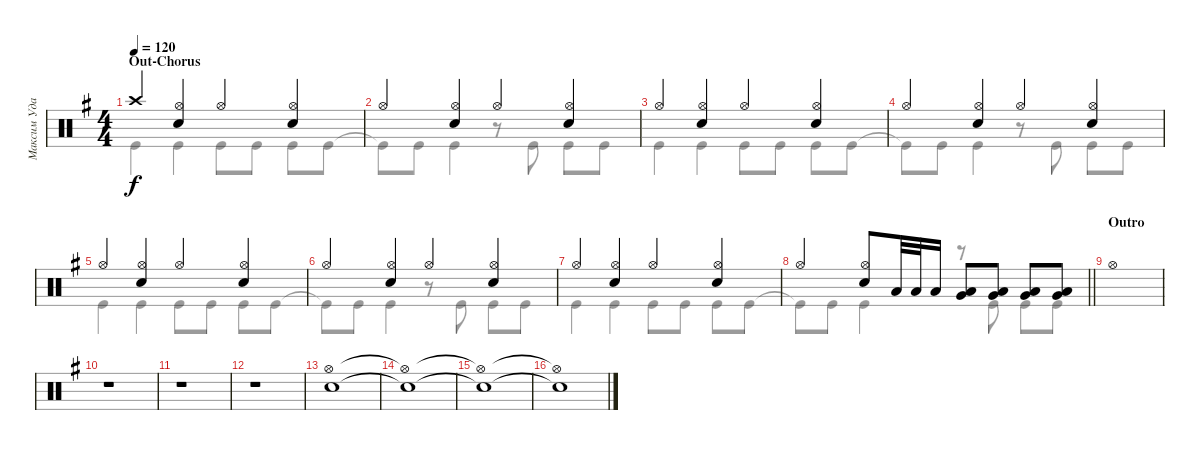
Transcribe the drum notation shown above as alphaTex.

\track ("Максим Удалов" "Максим Уда") {instrument percussion}
\staff {score}
\articulation defaults
\voice
\ts (4 4)
\section ("" "Out-Chorus")
\tempo 120
\clef neutral
\ks g "Crash high (hit)".4{dy f}
("Snare (hit) 2" "Hi-Hat (open)").4 "Hi-Hat (open)".4 ("Snare (hit) 2" "Hi-Hat (open)").4 |
"Hi-Hat (open)".4 ("Hi-Hat (open)" "Snare (hit) 2").4 "Hi-Hat (open)".4 ("Hi-Hat (open)" "Snare (hit) 2").4 |
"Hi-Hat (open)".4 ("Snare (hit) 2" "Hi-Hat (open)").4 "Hi-Hat (open)".4 ("Snare (hit) 2" "Hi-Hat (open)").4 |
"Hi-Hat (open)".4 ("Hi-Hat (open)" "Snare (hit) 2").4 "Hi-Hat (open)".4 ("Hi-Hat (open)" "Snare (hit) 2").4 |
"Hi-Hat (open)".4 ("Snare (hit) 2" "Hi-Hat (open)").4 "Hi-Hat (open)".4 ("Snare (hit) 2" "Hi-Hat (open)").4 |
"Hi-Hat (open)".4 ("Hi-Hat (open)" "Snare (hit) 2").4 "Hi-Hat (open)".4 ("Hi-Hat (open)" "Snare (hit) 2").4 |
"Hi-Hat (open)".4 ("Snare (hit) 2" "Hi-Hat (open)").4 "Hi-Hat (open)".4 ("Snare (hit) 2" "Hi-Hat (open)").4 |
\barLineRight lightlight "Hi-Hat (open)".4
("Hi-Hat (open)" "Snare (hit) 2").8 "Low Tom (hit)".32 "Low Tom (hit)".32 "Low Tom (hit)".16 ("Very Low Tom (hit)" "Low Tom (hit)").8 ("Very Low Tom (hit)" "Low Tom (hit)").8 ("Very Low Tom (hit)" "Low Tom (hit)").8 ("Very Low Tom (hit)" "Low Tom (hit)").8 |
\section ("" "Outro")
"Hi-Hat (open)".1 |
r.1 |
r.1 |
r.1 |
("Snare (hit) 2" "Hi-Hat (open)").1 |
("Snare (hit) 2"{t} "Hi-Hat (open)"{t}).1 |
("Snare (hit) 2"{t} "Hi-Hat (open)"{t}).1 |
("Snare (hit) 2"{t} "Hi-Hat (open)"{t}).1
\voice
\clef neutral
\ottava regular
\simile none
\ks g "Kick (hit)".4{dy f} "Kick (hit)".4 "Kick (hit)".8 "Kick (hit)".8 "Kick (hit)".8 "Kick (hit)".8
|
"Kick (hit)"{t}.8 "Kick (hit)".8 "Kick (hit)".4 r.8 "Kick (hit)".8 "Kick (hit)".8 "Kick (hit)".8 |
"Kick (hit)".4 "Kick (hit)".4 "Kick (hit)".8 "Kick (hit)".8 "Kick (hit)".8 "Kick (hit)".8 |
"Kick (hit)"{t}.8 "Kick (hit)".8 "Kick (hit)".4 r.8 "Kick (hit)".8 "Kick (hit)".8 "Kick (hit)".8 |
"Kick (hit)".4 "Kick (hit)".4 "Kick (hit)".8 "Kick (hit)".8 "Kick (hit)".8 "Kick (hit)".8 |
"Kick (hit)"{t}.8 "Kick (hit)".8 "Kick (hit)".4 r.8 "Kick (hit)".8 "Kick (hit)".8 "Kick (hit)".8 |
"Kick (hit)".4 "Kick (hit)".4 "Kick (hit)".8 "Kick (hit)".8 "Kick (hit)".8 "Kick (hit)".8 |
\barLineRight lightlight "Kick (hit)"{t}.8 "Kick (hit)".8 "Kick (hit)".4
r.8 "Kick (hit)".8 "Kick (hit)".8 "Kick (hit)".8 |
|
|
|
|
|
|
|
